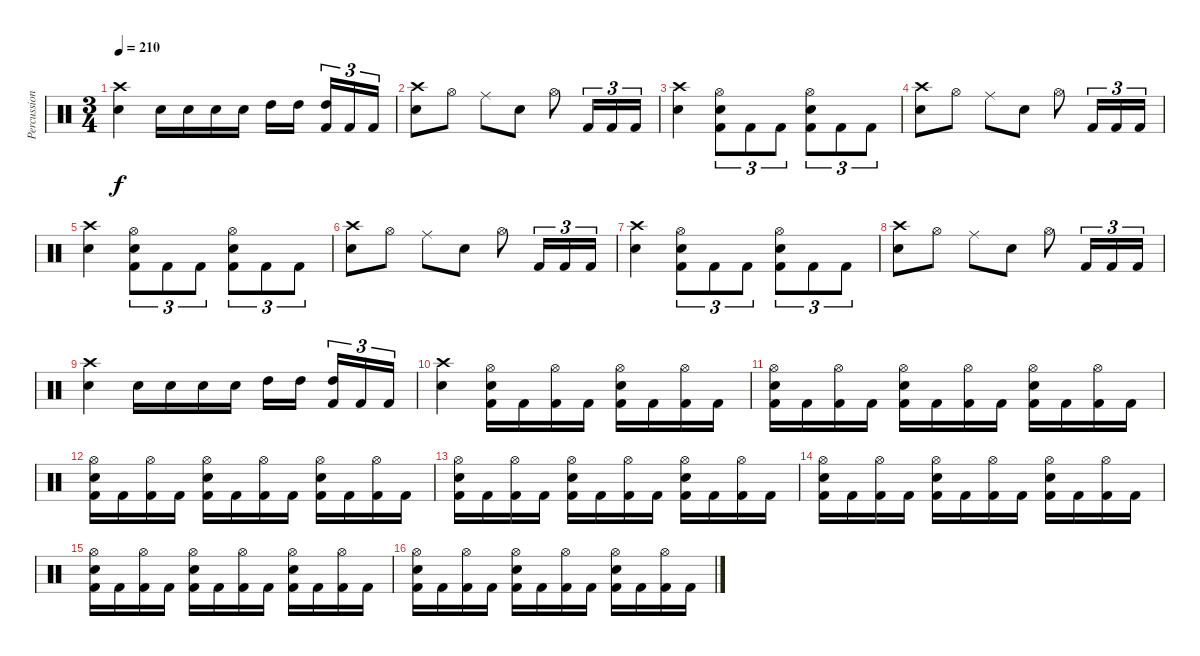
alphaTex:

\track ("Percussion" "Percussion") {instrument percussion}
\staff {score}
\articulation defaults
\ts (3 4)
\tempo 210
\clef neutral
\ks c
("Crash high (hit)" "Electric Snare (hit)").4{dy f} "Electric Snare (hit)".16 "Electric Snare (hit)".16 "Electric Snare (hit)".16 "Electric Snare (hit)".16 "High Tom (hit)".16 "High Tom (hit)".16 ("High Tom (hit)" "Kick (hit) 2").16{tu (3 2)} "Kick (hit) 2".16{tu (3 2)} "Kick (hit) 2".16{tu (3 2)} |
("Crash high (hit)" "Electric Snare (hit)").8 "Hi-Hat (open)".8 "Ride (middle)".8 "Electric Snare (hit)".8 "Hi-Hat (open)".8 "Kick (hit) 2".16{tu (3 2)} "Kick (hit) 2".16{tu (3 2)} "Kick (hit) 2".16{tu (3 2)} |
("Crash high (hit)" "Electric Snare (hit)").4 ("Hi-Hat (open)" "Electric Snare (hit)" "Kick (hit) 2").8{tu (3 2)} "Kick (hit) 2".8{tu (3 2)} "Kick (hit) 2".8{tu (3 2)} ("Hi-Hat (open)" "Electric Snare (hit)" "Kick (hit) 2").8{tu (3 2)} "Kick (hit) 2".8{tu (3 2)} "Kick (hit) 2".8{tu (3 2)} |
("Crash high (hit)" "Electric Snare (hit)").8 "Hi-Hat (open)".8 "Ride (middle)".8 "Electric Snare (hit)".8 "Hi-Hat (open)".8 "Kick (hit) 2".16{tu (3 2)} "Kick (hit) 2".16{tu (3 2)} "Kick (hit) 2".16{tu (3 2)} |
("Crash high (hit)" "Electric Snare (hit)").4 ("Hi-Hat (open)" "Electric Snare (hit)" "Kick (hit) 2").8{tu (3 2)} "Kick (hit) 2".8{tu (3 2)} "Kick (hit) 2".8{tu (3 2)} ("Hi-Hat (open)" "Electric Snare (hit)" "Kick (hit) 2").8{tu (3 2)} "Kick (hit) 2".8{tu (3 2)} "Kick (hit) 2".8{tu (3 2)} |
("Crash high (hit)" "Electric Snare (hit)").8 "Hi-Hat (open)".8 "Ride (middle)".8 "Electric Snare (hit)".8 "Hi-Hat (open)".8 "Kick (hit) 2".16{tu (3 2)} "Kick (hit) 2".16{tu (3 2)} "Kick (hit) 2".16{tu (3 2)} |
("Crash high (hit)" "Electric Snare (hit)").4 ("Hi-Hat (open)" "Electric Snare (hit)" "Kick (hit) 2").8{tu (3 2)} "Kick (hit) 2".8{tu (3 2)} "Kick (hit) 2".8{tu (3 2)} ("Hi-Hat (open)" "Electric Snare (hit)" "Kick (hit) 2").8{tu (3 2)} "Kick (hit) 2".8{tu (3 2)} "Kick (hit) 2".8{tu (3 2)} |
("Crash high (hit)" "Electric Snare (hit)").8 "Hi-Hat (open)".8 "Ride (middle)".8 "Electric Snare (hit)".8 "Hi-Hat (open)".8 "Kick (hit) 2".16{tu (3 2)} "Kick (hit) 2".16{tu (3 2)} "Kick (hit) 2".16{tu (3 2)} |
("Crash high (hit)" "Electric Snare (hit)").4 "Electric Snare (hit)".16 "Electric Snare (hit)".16 "Electric Snare (hit)".16 "Electric Snare (hit)".16 "High Tom (hit)".16 "High Tom (hit)".16 ("High Tom (hit)" "Kick (hit) 2").16{tu (3 2)} "Kick (hit) 2".16{tu (3 2)} "Kick (hit) 2".16{tu (3 2)} |
("Crash high (hit)" "Electric Snare (hit)").4 ("Hi-Hat (open)" "Electric Snare (hit)" "Kick (hit) 2").16 "Kick (hit) 2".16 ("Hi-Hat (open)" "Kick (hit) 2").16 "Kick (hit) 2".16 ("Hi-Hat (open)" "Electric Snare (hit)" "Kick (hit) 2").16 "Kick (hit) 2".16 ("Hi-Hat (open)" "Kick (hit) 2").16 "Kick (hit) 2".16 |
("Hi-Hat (open)" "Electric Snare (hit)" "Kick (hit) 2").16 "Kick (hit) 2".16 ("Hi-Hat (open)" "Kick (hit) 2").16 "Kick (hit) 2".16 ("Hi-Hat (open)" "Electric Snare (hit)" "Kick (hit) 2").16 "Kick (hit) 2".16 ("Hi-Hat (open)" "Kick (hit) 2").16 "Kick (hit) 2".16 ("Hi-Hat (open)" "Electric Snare (hit)" "Kick (hit) 2").16 "Kick (hit) 2".16 ("Hi-Hat (open)" "Kick (hit) 2").16 "Kick (hit) 2".16 |
("Hi-Hat (open)" "Electric Snare (hit)" "Kick (hit) 2").16 "Kick (hit) 2".16 ("Hi-Hat (open)" "Kick (hit) 2").16 "Kick (hit) 2".16 ("Hi-Hat (open)" "Electric Snare (hit)" "Kick (hit) 2").16 "Kick (hit) 2".16 ("Hi-Hat (open)" "Kick (hit) 2").16 "Kick (hit) 2".16 ("Hi-Hat (open)" "Electric Snare (hit)" "Kick (hit) 2").16 "Kick (hit) 2".16 ("Hi-Hat (open)" "Kick (hit) 2").16 "Kick (hit) 2".16 |
("Hi-Hat (open)" "Electric Snare (hit)" "Kick (hit) 2").16 "Kick (hit) 2".16 ("Hi-Hat (open)" "Kick (hit) 2").16 "Kick (hit) 2".16 ("Hi-Hat (open)" "Electric Snare (hit)" "Kick (hit) 2").16 "Kick (hit) 2".16 ("Hi-Hat (open)" "Kick (hit) 2").16 "Kick (hit) 2".16 ("Hi-Hat (open)" "Electric Snare (hit)" "Kick (hit) 2").16 "Kick (hit) 2".16 ("Hi-Hat (open)" "Kick (hit) 2").16 "Kick (hit) 2".16 |
("Hi-Hat (open)" "Electric Snare (hit)" "Kick (hit) 2").16 "Kick (hit) 2".16 ("Hi-Hat (open)" "Kick (hit) 2").16 "Kick (hit) 2".16 ("Hi-Hat (open)" "Electric Snare (hit)" "Kick (hit) 2").16 "Kick (hit) 2".16 ("Hi-Hat (open)" "Kick (hit) 2").16 "Kick (hit) 2".16 ("Hi-Hat (open)" "Electric Snare (hit)" "Kick (hit) 2").16 "Kick (hit) 2".16 ("Hi-Hat (open)" "Kick (hit) 2").16 "Kick (hit) 2".16 |
("Hi-Hat (open)" "Electric Snare (hit)" "Kick (hit) 2").16 "Kick (hit) 2".16 ("Hi-Hat (open)" "Kick (hit) 2").16 "Kick (hit) 2".16 ("Hi-Hat (open)" "Electric Snare (hit)" "Kick (hit) 2").16 "Kick (hit) 2".16 ("Hi-Hat (open)" "Kick (hit) 2").16 "Kick (hit) 2".16 ("Hi-Hat (open)" "Electric Snare (hit)" "Kick (hit) 2").16 "Kick (hit) 2".16 ("Hi-Hat (open)" "Kick (hit) 2").16 "Kick (hit) 2".16 |
("Hi-Hat (open)" "Electric Snare (hit)" "Kick (hit) 2").16 "Kick (hit) 2".16 ("Hi-Hat (open)" "Kick (hit) 2").16 "Kick (hit) 2".16 ("Hi-Hat (open)" "Electric Snare (hit)" "Kick (hit) 2").16 "Kick (hit) 2".16 ("Hi-Hat (open)" "Kick (hit) 2").16 "Kick (hit) 2".16 ("Hi-Hat (open)" "Electric Snare (hit)" "Kick (hit) 2").16 "Kick (hit) 2".16 ("Hi-Hat (open)" "Kick (hit) 2").16 "Kick (hit) 2".16
